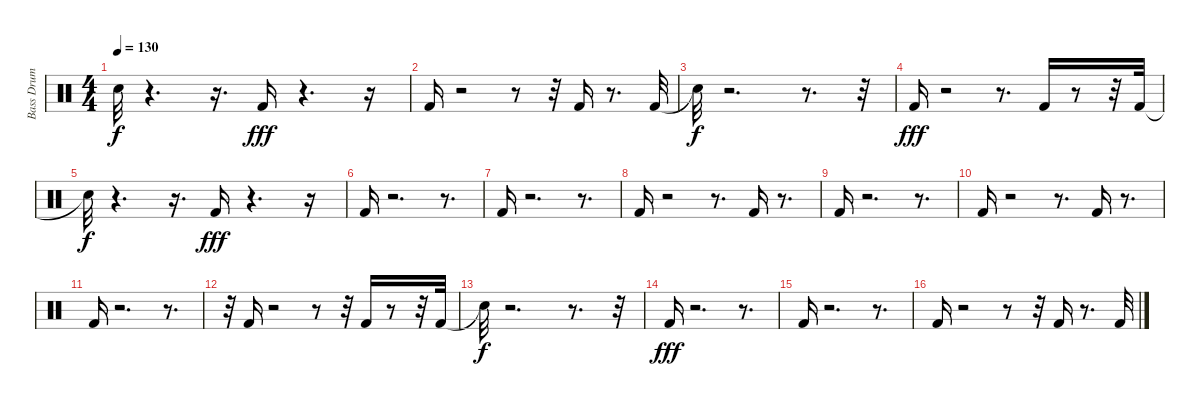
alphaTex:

\track ("Bass Drum" "Bass Drum") {instrument percussion}
\staff {score}
\articulation defaults
\ts (4 4)
\tempo 130
\clef neutral
\ks c "Snare (hit)"{t}.32{dy f}
r.4{d} r.16{d} "Kick (hit) 2".16{dy fff} r.4{d} r.16 |
"Kick (hit) 2".16 r.2 r.8 r.32 "Kick (hit) 2".16 r.8{d} "Kick (hit) 2".32 |
"Snare (hit)"{t}.32{dy f} r.2{d} r.8{d} r.32 |
"Kick (hit) 2".16{dy fff} r.2 r.8{d} "Kick (hit) 2".16 r.8 r.32 "Kick (hit) 2".32 |
"Snare (hit)"{t}.32{dy f} r.4{d} r.16{d} "Kick (hit) 2".16{dy fff} r.4{d} r.16 |
"Kick (hit) 2".16 r.2{d} r.8{d} |
"Kick (hit) 2".16 r.2{d} r.8{d} |
"Kick (hit) 2".16 r.2 r.8{d} "Kick (hit) 2".16 r.8{d} |
"Kick (hit) 2".16 r.2{d} r.8{d} |
"Kick (hit) 2".16 r.2 r.8{d} "Kick (hit) 2".16 r.8{d} |
"Kick (hit) 2".16 r.2{d} r.8{d} |
r.32 "Kick (hit) 2".16 r.2 r.8 r.32 "Kick (hit) 2".16 r.8 r.32 "Kick (hit) 2".32 |
"Snare (hit)"{t}.32{dy f} r.2{d} r.8{d} r.32 |
"Kick (hit) 2".16{dy fff} r.2{d} r.8{d} |
"Kick (hit) 2".16 r.2{d} r.8{d} |
"Kick (hit) 2".16 r.2 r.8 r.32 "Kick (hit) 2".16 r.8{d} "Kick (hit) 2".32
